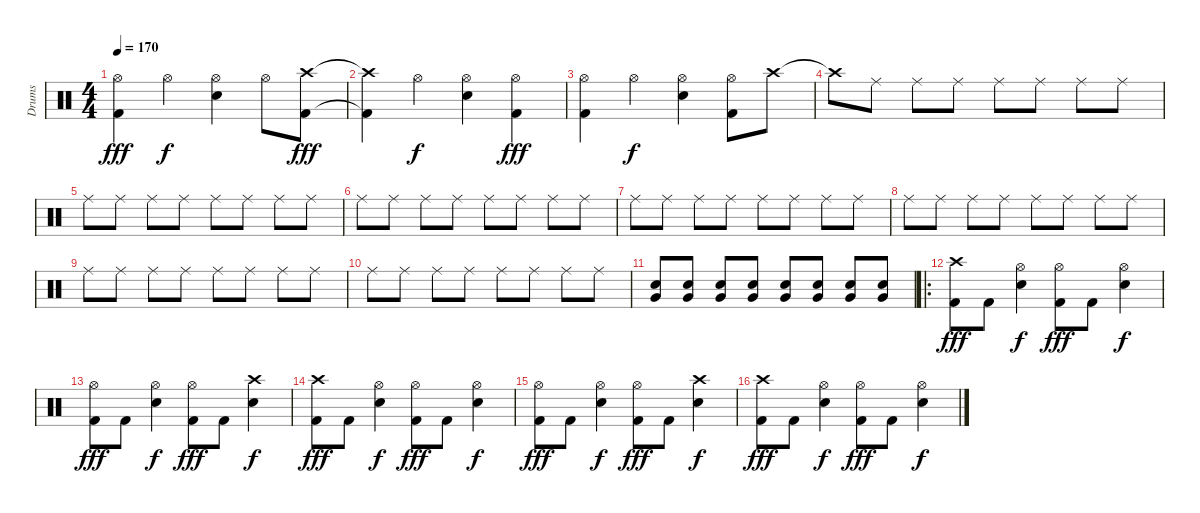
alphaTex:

\track ("Drums" "Drums") {instrument percussion}
\staff {score}
\articulation defaults
\ts (4 4)
\tempo 170
\clef neutral
\ks c
("Hi-Hat (open)" "Kick (hit) 2").4{dy fff} "Hi-Hat (open)".4{dy f} ("Hi-Hat (open)" "Electric Snare (hit)").4 "Hi-Hat (open)".8 ("Crash high (hit)" "Kick (hit) 2").8{dy fff} |
("Crash high (hit)"{t} "Kick (hit) 2"{t}).4 "Hi-Hat (open)".4{dy f} ("Hi-Hat (open)" "Electric Snare (hit)").4 ("Hi-Hat (open)" "Kick (hit) 2").4{dy fff} |
("Hi-Hat (open)" "Kick (hit) 2").4 "Hi-Hat (open)".4{dy f} ("Hi-Hat (open)" "Electric Snare (hit)").4 ("Hi-Hat (open)" "Kick (hit) 2").8 "Crash high (hit)".8 |
"Crash high (hit)"{t}.8 "Ride (middle)".8 "Ride (middle)".8 "Ride (middle)".8 "Ride (middle)".8 "Ride (middle)".8 "Ride (middle)".8 "Ride (middle)".8 |
"Ride (middle)".8 "Ride (middle)".8 "Ride (middle)".8 "Ride (middle)".8 "Ride (middle)".8 "Ride (middle)".8 "Ride (middle)".8 "Ride (middle)".8 |
"Ride (middle)".8 "Ride (middle)".8 "Ride (middle)".8 "Ride (middle)".8 "Ride (middle)".8 "Ride (middle)".8 "Ride (middle)".8 "Ride (middle)".8 |
"Ride (middle)".8 "Ride (middle)".8 "Ride (middle)".8 "Ride (middle)".8 "Ride (middle)".8 "Ride (middle)".8 "Ride (middle)".8 "Ride (middle)".8 |
"Ride (middle)".8 "Ride (middle)".8 "Ride (middle)".8 "Ride (middle)".8 "Ride (middle)".8 "Ride (middle)".8 "Ride (middle)".8 "Ride (middle)".8 |
"Ride (middle)".8 "Ride (middle)".8 "Ride (middle)".8 "Ride (middle)".8 "Ride (middle)".8 "Ride (middle)".8 "Ride (middle)".8 "Ride (middle)".8 |
"Ride (middle)".8 "Ride (middle)".8 "Ride (middle)".8 "Ride (middle)".8 "Ride (middle)".8 "Ride (middle)".8 "Ride (middle)".8 "Ride (middle)".8 |
("Very Low Tom (hit)" "Electric Snare (hit)").8 ("Very Low Tom (hit)" "Electric Snare (hit)").8 ("Very Low Tom (hit)" "Electric Snare (hit)").8 ("Very Low Tom (hit)" "Electric Snare (hit)").8 ("Very Low Tom (hit)" "Electric Snare (hit)").8 ("Very Low Tom (hit)" "Electric Snare (hit)").8 ("Very Low Tom (hit)" "Electric Snare (hit)").8 ("Very Low Tom (hit)" "Electric Snare (hit)").8 |
\ro
("Crash high (hit)" "Kick (hit) 2").8{dy fff} "Kick (hit) 2".8 ("Hi-Hat (open)" "Electric Snare (hit)").4{dy f} ("Hi-Hat (open)" "Kick (hit) 2").8{dy fff} "Kick (hit) 2".8 ("Hi-Hat (open)" "Electric Snare (hit)").4{dy f} |
("Hi-Hat (open)" "Kick (hit) 2").8{dy fff} "Kick (hit) 2".8 ("Hi-Hat (open)" "Electric Snare (hit)").4{dy f} ("Hi-Hat (open)" "Kick (hit) 2").8{dy fff} "Kick (hit) 2".8 ("Crash high (hit)" "Electric Snare (hit)").4{dy f} |
("Crash high (hit)" "Kick (hit) 2").8{dy fff} "Kick (hit) 2".8 ("Hi-Hat (open)" "Electric Snare (hit)").4{dy f} ("Hi-Hat (open)" "Kick (hit) 2").8{dy fff} "Kick (hit) 2".8 ("Hi-Hat (open)" "Electric Snare (hit)").4{dy f} |
("Hi-Hat (open)" "Kick (hit) 2").8{dy fff} "Kick (hit) 2".8 ("Hi-Hat (open)" "Electric Snare (hit)").4{dy f} ("Hi-Hat (open)" "Kick (hit) 2").8{dy fff} "Kick (hit) 2".8 ("Crash high (hit)" "Electric Snare (hit)").4{dy f} |
("Crash high (hit)" "Kick (hit) 2").8{dy fff} "Kick (hit) 2".8 ("Hi-Hat (open)" "Electric Snare (hit)").4{dy f} ("Hi-Hat (open)" "Kick (hit) 2").8{dy fff} "Kick (hit) 2".8 ("Hi-Hat (open)" "Electric Snare (hit)").4{dy f}
